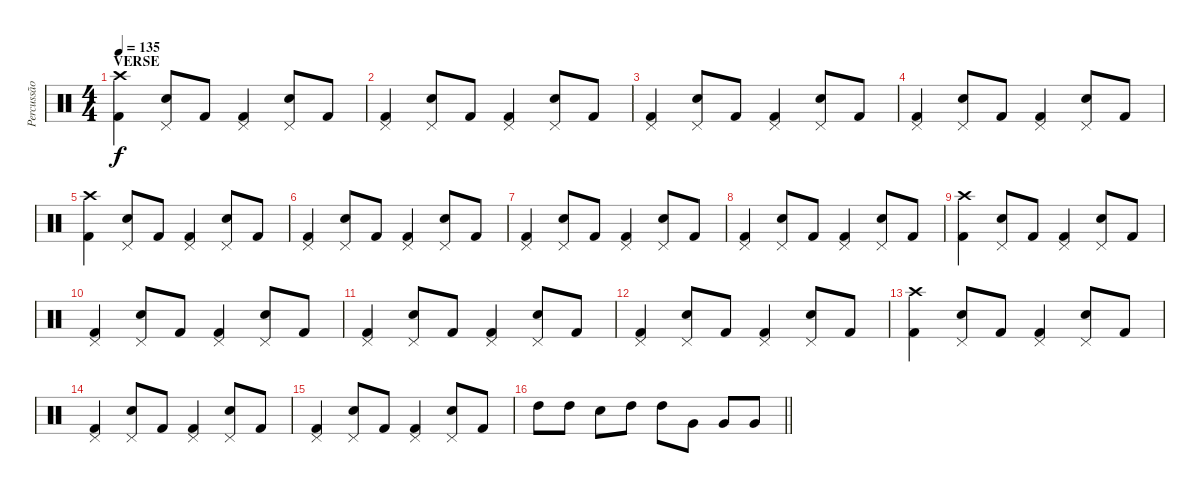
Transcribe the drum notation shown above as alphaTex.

\track ("Percussão" "Percussão") {instrument percussion}
\staff {score}
\articulation defaults
\ts (4 4)
\section ("" "VERSE")
\tempo 135
\clef neutral
\ks c
("Crash high (hit)" "Kick (hit) 2").4{dy f} ("Pedal Hi-Hat (hit)" "Snare (hit) 2").8 "Kick (hit) 2".8 ("Pedal Hi-Hat (hit)" "Kick (hit) 2").4 ("Pedal Hi-Hat (hit)" "Snare (hit) 2").8 "Kick (hit) 2".8 |
("Pedal Hi-Hat (hit)" "Kick (hit) 2").4 ("Pedal Hi-Hat (hit)" "Snare (hit) 2").8 "Kick (hit) 2".8 ("Pedal Hi-Hat (hit)" "Kick (hit) 2").4 ("Pedal Hi-Hat (hit)" "Snare (hit) 2").8 "Kick (hit) 2".8 |
("Pedal Hi-Hat (hit)" "Kick (hit) 2").4 ("Pedal Hi-Hat (hit)" "Snare (hit) 2").8 "Kick (hit) 2".8 ("Pedal Hi-Hat (hit)" "Kick (hit) 2").4 ("Pedal Hi-Hat (hit)" "Snare (hit) 2").8 "Kick (hit) 2".8 |
("Pedal Hi-Hat (hit)" "Kick (hit) 2").4 ("Pedal Hi-Hat (hit)" "Snare (hit) 2").8 "Kick (hit) 2".8 ("Pedal Hi-Hat (hit)" "Kick (hit) 2").4 ("Pedal Hi-Hat (hit)" "Snare (hit) 2").8 "Kick (hit) 2".8 |
("Crash high (hit)" "Kick (hit) 2").4 ("Pedal Hi-Hat (hit)" "Snare (hit) 2").8 "Kick (hit) 2".8 ("Pedal Hi-Hat (hit)" "Kick (hit) 2").4 ("Pedal Hi-Hat (hit)" "Snare (hit) 2").8 "Kick (hit) 2".8 |
("Pedal Hi-Hat (hit)" "Kick (hit) 2").4 ("Pedal Hi-Hat (hit)" "Snare (hit) 2").8 "Kick (hit) 2".8 ("Pedal Hi-Hat (hit)" "Kick (hit) 2").4 ("Pedal Hi-Hat (hit)" "Snare (hit) 2").8 "Kick (hit) 2".8 |
("Pedal Hi-Hat (hit)" "Kick (hit) 2").4 ("Pedal Hi-Hat (hit)" "Snare (hit) 2").8 "Kick (hit) 2".8 ("Pedal Hi-Hat (hit)" "Kick (hit) 2").4 ("Pedal Hi-Hat (hit)" "Snare (hit) 2").8 "Kick (hit) 2".8 |
("Pedal Hi-Hat (hit)" "Kick (hit) 2").4 ("Pedal Hi-Hat (hit)" "Snare (hit) 2").8 "Kick (hit) 2".8 ("Pedal Hi-Hat (hit)" "Kick (hit) 2").4 ("Pedal Hi-Hat (hit)" "Snare (hit) 2").8 "Kick (hit) 2".8 |
("Crash high (hit)" "Kick (hit) 2").4 ("Pedal Hi-Hat (hit)" "Snare (hit) 2").8 "Kick (hit) 2".8 ("Pedal Hi-Hat (hit)" "Kick (hit) 2").4 ("Pedal Hi-Hat (hit)" "Snare (hit) 2").8 "Kick (hit) 2".8 |
("Pedal Hi-Hat (hit)" "Kick (hit) 2").4 ("Pedal Hi-Hat (hit)" "Snare (hit) 2").8 "Kick (hit) 2".8 ("Pedal Hi-Hat (hit)" "Kick (hit) 2").4 ("Pedal Hi-Hat (hit)" "Snare (hit) 2").8 "Kick (hit) 2".8 |
("Pedal Hi-Hat (hit)" "Kick (hit) 2").4 ("Pedal Hi-Hat (hit)" "Snare (hit) 2").8 "Kick (hit) 2".8 ("Pedal Hi-Hat (hit)" "Kick (hit) 2").4 ("Pedal Hi-Hat (hit)" "Snare (hit) 2").8 "Kick (hit) 2".8 |
("Pedal Hi-Hat (hit)" "Kick (hit) 2").4 ("Pedal Hi-Hat (hit)" "Snare (hit) 2").8 "Kick (hit) 2".8 ("Pedal Hi-Hat (hit)" "Kick (hit) 2").4 ("Pedal Hi-Hat (hit)" "Snare (hit) 2").8 "Kick (hit) 2".8 |
("Crash high (hit)" "Kick (hit) 2").4 ("Pedal Hi-Hat (hit)" "Snare (hit) 2").8 "Kick (hit) 2".8 ("Pedal Hi-Hat (hit)" "Kick (hit) 2").4 ("Pedal Hi-Hat (hit)" "Snare (hit) 2").8 "Kick (hit) 2".8 |
("Pedal Hi-Hat (hit)" "Kick (hit) 2").4 ("Pedal Hi-Hat (hit)" "Snare (hit) 2").8 "Kick (hit) 2".8 ("Pedal Hi-Hat (hit)" "Kick (hit) 2").4 ("Pedal Hi-Hat (hit)" "Snare (hit) 2").8 "Kick (hit) 2".8 |
("Pedal Hi-Hat (hit)" "Kick (hit) 2").4 ("Pedal Hi-Hat (hit)" "Snare (hit) 2").8 "Kick (hit) 2".8 ("Pedal Hi-Hat (hit)" "Kick (hit) 2").4 ("Pedal Hi-Hat (hit)" "Snare (hit) 2").8 "Kick (hit) 2".8 |
\barLineRight lightlight "High Tom (hit)".8 "High Tom (hit)".8 "Snare (hit) 2".8 "High Tom (hit)".8 "High Tom (hit)".8 "Very Low Tom (hit)".8 "Very Low Tom (hit)".8 "Very Low Tom (hit)".8
